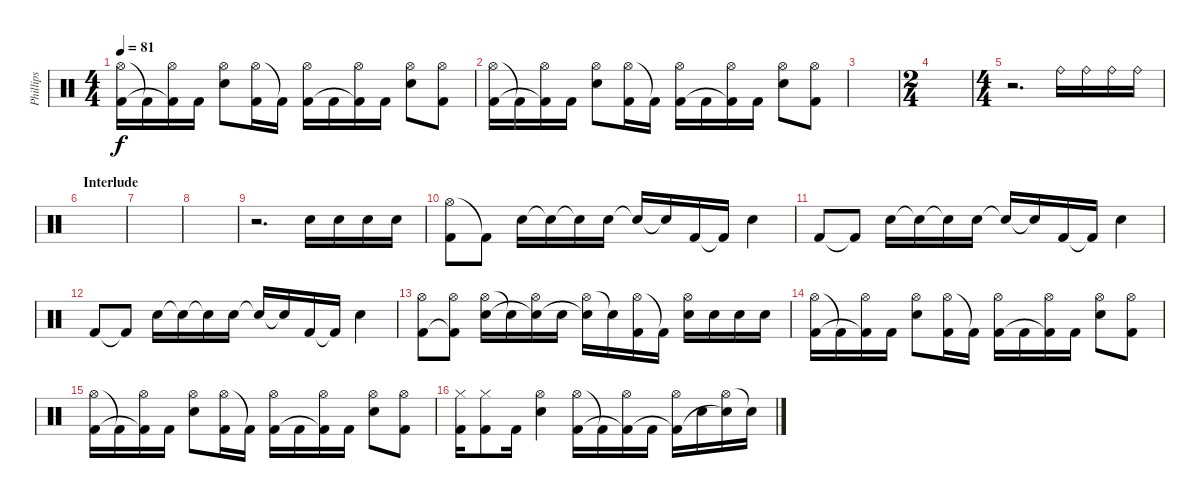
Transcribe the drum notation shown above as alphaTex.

\track ("Phillips" "Phillips") {instrument percussion}
\staff {score}
\articulation defaults
\ts (4 4)
\tempo 81
\clef neutral
\ks c
("Hi-Hat (open)" "Kick (hit) 2").16{dy f} "Kick (hit) 2"{t}.16 ("Hi-Hat (open)" "Kick (hit) 2"{t}).16 "Kick (hit) 2".16 ("Hi-Hat (open)" "Snare (hit) 2").8 ("Hi-Hat (open)" "Kick (hit) 2").16 "Kick (hit) 2"{t}.16 ("Hi-Hat (open)" "Kick (hit) 2").16 "Kick (hit) 2".16 ("Hi-Hat (open)" "Kick (hit) 2"{t}).16 "Kick (hit) 2".16 ("Hi-Hat (open)" "Snare (hit) 2").8 ("Hi-Hat (open)" "Kick (hit) 2").8 |
("Hi-Hat (open)" "Kick (hit) 2").16 "Kick (hit) 2"{t}.16 ("Hi-Hat (open)" "Kick (hit) 2"{t}).16 "Kick (hit) 2".16 ("Hi-Hat (open)" "Snare (hit) 2").8 ("Hi-Hat (open)" "Kick (hit) 2").16 "Kick (hit) 2"{t}.16 ("Hi-Hat (open)" "Kick (hit) 2").16 "Kick (hit) 2".16 ("Hi-Hat (open)" "Kick (hit) 2"{t}).16 "Kick (hit) 2".16 ("Hi-Hat (open)" "Snare (hit) 2").8 ("Hi-Hat (open)" "Kick (hit) 2").8 |
|
\ts (2 4)
|
\ts (4 4)
r.2{d} "Ride (bell)".16 "Ride (bell)".16 "Ride (bell)".16 "Ride (bell)".16 |
\section ("" "Interlude")
|
|
|
r.2{d} "Snare (hit) 2".16 "Snare (hit) 2".16 "Snare (hit) 2".16 "Snare (hit) 2".16 |
("Hi-Hat (open)" "Kick (hit) 2").8 "Kick (hit) 2"{t}.8 "Snare (hit) 2".16 "Snare (hit) 2"{t}.16 "Snare (hit) 2"{t}.16 "Snare (hit) 2".16 "Snare (hit) 2"{t}.16 "Snare (hit) 2"{t}.16 "Kick (hit) 2".16 "Kick (hit) 2"{t}.16 "Snare (hit) 2".4 |
"Kick (hit) 2".8 "Kick (hit) 2"{t}.8 "Snare (hit) 2".16 "Snare (hit) 2"{t}.16 "Snare (hit) 2"{t}.16 "Snare (hit) 2".16 "Snare (hit) 2"{t}.16 "Snare (hit) 2"{t}.16 "Kick (hit) 2".16 "Kick (hit) 2"{t}.16 "Snare (hit) 2".4 |
"Kick (hit) 2".8 "Kick (hit) 2"{t}.8 "Snare (hit) 2".16 "Snare (hit) 2"{t}.16 "Snare (hit) 2"{t}.16 "Snare (hit) 2".16 "Snare (hit) 2"{t}.16 "Snare (hit) 2"{t}.16 "Kick (hit) 2".16 "Kick (hit) 2"{t}.16 "Snare (hit) 2".4 |
("Hi-Hat (open)" "Kick (hit) 2").8 ("Hi-Hat (open)" "Kick (hit) 2"{t}).8 ("Hi-Hat (open)" "Snare (hit) 2").16 "Snare (hit) 2"{t}.16 ("Hi-Hat (open)" "Snare (hit) 2"{t}).16 "Snare (hit) 2".16 ("Hi-Hat (open)" "Snare (hit) 2"{t}).16 "Snare (hit) 2"{t}.16 ("Hi-Hat (open)" "Kick (hit) 2").16 "Kick (hit) 2"{t}.16 ("Hi-Hat (open)" "Snare (hit) 2").16 "Snare (hit) 2".16 "Snare (hit) 2".16 "Snare (hit) 2".16 |
("Hi-Hat (open)" "Kick (hit) 2").16 "Kick (hit) 2"{t}.16 ("Hi-Hat (open)" "Kick (hit) 2"{t}).16 "Kick (hit) 2".16 ("Hi-Hat (open)" "Snare (hit) 2").8 ("Hi-Hat (open)" "Kick (hit) 2").16 "Kick (hit) 2"{t}.16 ("Hi-Hat (open)" "Kick (hit) 2").16 "Kick (hit) 2".16 ("Hi-Hat (open)" "Kick (hit) 2"{t}).16 "Kick (hit) 2".16 ("Hi-Hat (open)" "Snare (hit) 2").8 ("Hi-Hat (open)" "Kick (hit) 2").8 |
("Hi-Hat (open)" "Kick (hit) 2").16 "Kick (hit) 2"{t}.16 ("Hi-Hat (open)" "Kick (hit) 2"{t}).16 "Kick (hit) 2".16 ("Hi-Hat (open)" "Snare (hit) 2").8 ("Hi-Hat (open)" "Kick (hit) 2").16 "Kick (hit) 2"{t}.16 ("Hi-Hat (open)" "Kick (hit) 2").16 "Kick (hit) 2".16 ("Hi-Hat (open)" "Kick (hit) 2"{t}).16 "Kick (hit) 2".16 ("Hi-Hat (open)" "Snare (hit) 2").8 ("Hi-Hat (open)" "Kick (hit) 2").8 |
("Hi-Hat (closed)" "Kick (hit) 2").16 ("Hi-Hat (closed)" "Kick (hit) 2").8 "Kick (hit) 2".16 ("Hi-Hat (open)" "Snare (hit) 2").4 ("Hi-Hat (open)" "Kick (hit) 2").16 "Kick (hit) 2"{t}.16 ("Hi-Hat (open)" "Kick (hit) 2"{t}).16 "Kick (hit) 2".16 ("Hi-Hat (open)" "Kick (hit) 2"{t}).16 "Snare (hit) 2".16 ("Hi-Hat (open)" "Snare (hit) 2"{t}).16 "Snare (hit) 2"{t}.16
